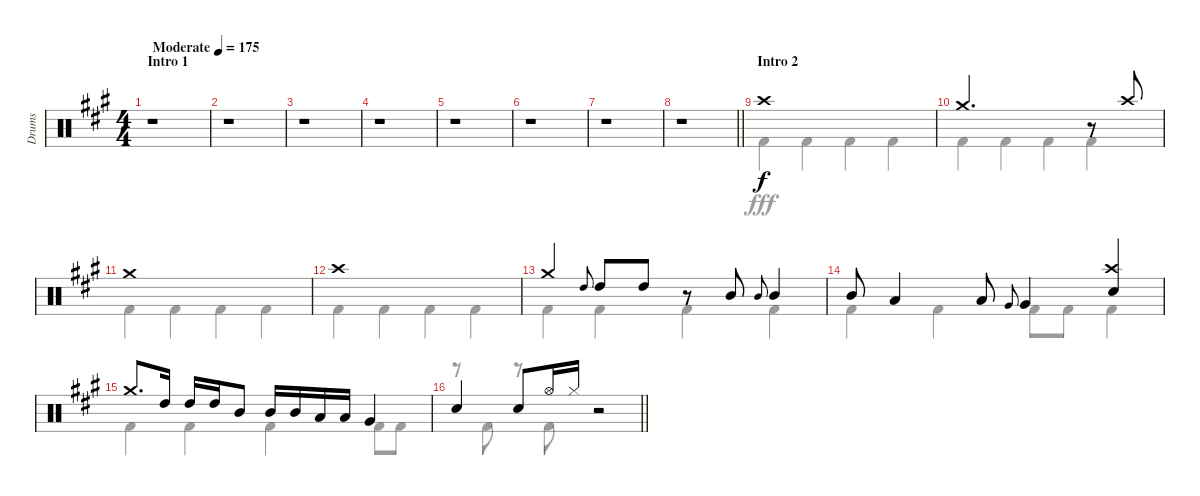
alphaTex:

\track ("Drums" "Drums") {instrument percussion}
\staff {score}
\articulation defaults
\voice
\ts (4 4)
\section ("" "Intro 1")
\tempo (175 "Moderate")
\clef neutral
\ks a
r.1{dy f} |
r.1 |
r.1 |
r.1 |
r.1 |
r.1 |
r.1 |
\barLineRight lightlight
r.1 |
\section ("" "Intro 2")
"Crash high (hit)".1 |
"Crash medium (hit)".2{d} r.8 "Crash high (hit)".8 |
"Crash medium (hit)".1 |
"Crash high (hit)".1 |
"Crash medium (hit)".4 "High Tom (hit)".8{gr onbeat} "High Tom (hit)".8 "High Tom (hit)".8 r.8 "Mid Tom (hit)".8 "Mid Tom (hit)".8{gr onbeat} "Mid Tom (hit)".4 |
"Mid Tom (hit)".8 "Low Tom (hit)".4 "Low Tom (hit)".8 "Very Low Tom (hit)".8{gr onbeat} "Very Low Tom (hit)".4 ("Crash high (hit)" "Snare (hit) 2").4 |
"Crash medium (hit)".8{d} "High Tom (hit)".16 "High Tom (hit)".16 "High Tom (hit)".16 "Mid Tom (hit)".8 "Mid Tom (hit)".16 "Mid Tom (hit)".16 "Low Tom (hit)".16 "Low Tom (hit)".16 "Very Low Tom (hit)".4 |
\barLineRight lightlight "Snare (hit) 2".4 "Snare (hit) 2".8 "Hi-Hat (open)".16 "Hi-Hat (closed)".16
r.2
\voice
\clef neutral
\ottava regular
\simile none
\ks a
r.1{dy fff} |
r.1 |
r.1 |
r.1 |
r.1 |
r.1 |
r.1 |
\barLineRight lightlight
r.1 |
"Kick (hit) 2".4 "Kick (hit) 2".4 "Kick (hit) 2".4 "Kick (hit) 2".4 |
"Kick (hit) 2".4 "Kick (hit) 2".4 "Kick (hit) 2".4 "Kick (hit) 2".4 |
"Kick (hit) 2".4 "Kick (hit) 2".4 "Kick (hit) 2".4 "Kick (hit) 2".4 |
"Kick (hit) 2".4 "Kick (hit) 2".4 "Kick (hit) 2".4 "Kick (hit) 2".4 |
"Kick (hit) 2".4 "Kick (hit) 2".4 "Kick (hit) 2".4 "Kick (hit) 2".4 |
"Kick (hit) 2".4 "Kick (hit) 2".4 "Kick (hit) 2".8 "Kick (hit) 2".8 "Kick (hit) 2".4 |
"Kick (hit) 2".4 "Kick (hit) 2".4 "Kick (hit) 2".4 "Kick (hit) 2".8 "Kick (hit) 2".8 |
\barLineRight lightlight
r.8 "Kick (hit) 2".8 r.8 "Kick (hit) 2".8 r.2
